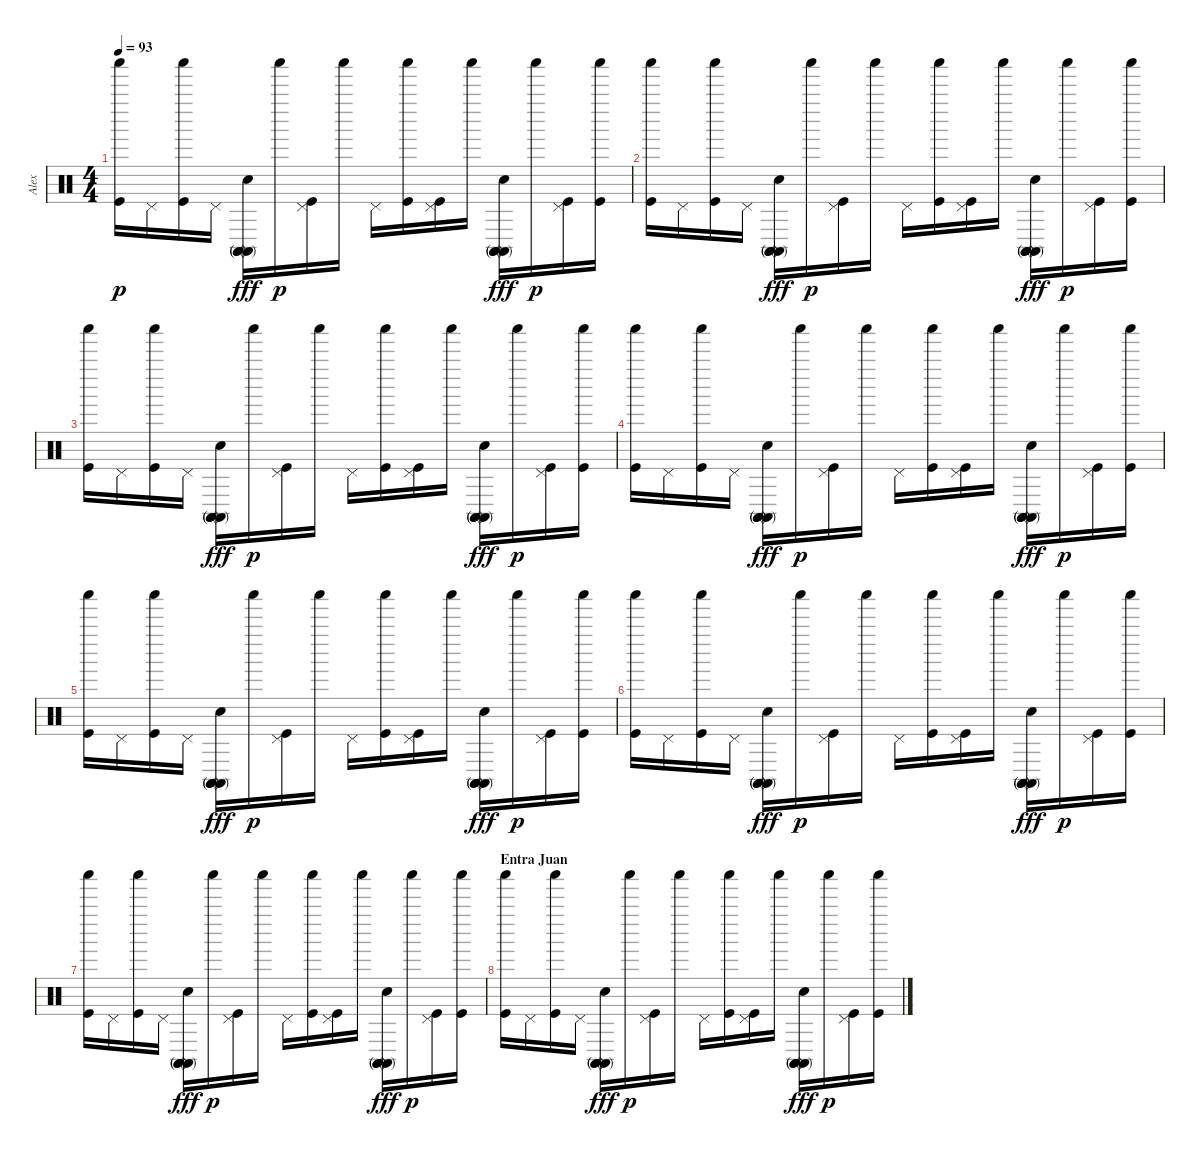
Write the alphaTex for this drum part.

\track ("Alex" "Alex") {instrument percussion}
\staff {score}
\articulation defaults
\ts (4 4)
\tempo 93
\clef neutral
\ks c
("Kick (hit)" "Shaker (hit)").16{dy p volume 13} "Pedal Hi-Hat (hit)".16 ("Kick (hit)" "Shaker (hit)").16 "Pedal Hi-Hat (hit)".16 ("Electric Snare (hit)" "Conga high (mute)" "Conga high (mute)" "Conga high (mute)").16{dy fff} "Shaker (hit)".16{dy p} ("Kick (hit)" "Pedal Hi-Hat (hit)").16 "Shaker (hit)".16 "Pedal Hi-Hat (hit)".16 ("Kick (hit)" "Shaker (hit)").16 ("Kick (hit)" "Pedal Hi-Hat (hit)").16 "Shaker (hit)".16 ("Electric Snare (hit)" "Conga high (mute)" "Conga high (mute)" "Conga high (mute)").16{dy fff} "Shaker (hit)".16{dy p} ("Kick (hit)" "Pedal Hi-Hat (hit)").16 ("Kick (hit)" "Shaker (hit)").16 |
("Kick (hit)" "Shaker (hit)").16{volume 13} "Pedal Hi-Hat (hit)".16 ("Kick (hit)" "Shaker (hit)").16 "Pedal Hi-Hat (hit)".16 ("Electric Snare (hit)" "Conga high (mute)" "Conga high (mute)" "Conga high (mute)").16{dy fff} "Shaker (hit)".16{dy p} ("Kick (hit)" "Pedal Hi-Hat (hit)").16 "Shaker (hit)".16 "Pedal Hi-Hat (hit)".16 ("Kick (hit)" "Shaker (hit)").16 ("Kick (hit)" "Pedal Hi-Hat (hit)").16 "Shaker (hit)".16 ("Electric Snare (hit)" "Conga high (mute)" "Conga high (mute)" "Conga high (mute)").16{dy fff} "Shaker (hit)".16{dy p} ("Kick (hit)" "Pedal Hi-Hat (hit)").16 ("Kick (hit)" "Shaker (hit)").16 |
("Kick (hit)" "Shaker (hit)").16{volume 13} "Pedal Hi-Hat (hit)".16 ("Kick (hit)" "Shaker (hit)").16 "Pedal Hi-Hat (hit)".16 ("Electric Snare (hit)" "Conga high (mute)" "Conga high (mute)" "Conga high (mute)").16{dy fff} "Shaker (hit)".16{dy p} ("Kick (hit)" "Pedal Hi-Hat (hit)").16 "Shaker (hit)".16 "Pedal Hi-Hat (hit)".16 ("Kick (hit)" "Shaker (hit)").16 ("Kick (hit)" "Pedal Hi-Hat (hit)").16 "Shaker (hit)".16 ("Electric Snare (hit)" "Conga high (mute)" "Conga high (mute)" "Conga high (mute)").16{dy fff} "Shaker (hit)".16{dy p} ("Kick (hit)" "Pedal Hi-Hat (hit)").16 ("Kick (hit)" "Shaker (hit)").16 |
("Kick (hit)" "Shaker (hit)").16{volume 13} "Pedal Hi-Hat (hit)".16 ("Kick (hit)" "Shaker (hit)").16 "Pedal Hi-Hat (hit)".16 ("Electric Snare (hit)" "Conga high (mute)" "Conga high (mute)" "Conga high (mute)").16{dy fff} "Shaker (hit)".16{dy p} ("Kick (hit)" "Pedal Hi-Hat (hit)").16 "Shaker (hit)".16 "Pedal Hi-Hat (hit)".16 ("Kick (hit)" "Shaker (hit)").16 ("Kick (hit)" "Pedal Hi-Hat (hit)").16 "Shaker (hit)".16 ("Electric Snare (hit)" "Conga high (mute)" "Conga high (mute)" "Conga high (mute)").16{dy fff} "Shaker (hit)".16{dy p} ("Kick (hit)" "Pedal Hi-Hat (hit)").16 ("Kick (hit)" "Shaker (hit)").16 |
("Kick (hit)" "Shaker (hit)").16{volume 13} "Pedal Hi-Hat (hit)".16 ("Kick (hit)" "Shaker (hit)").16 "Pedal Hi-Hat (hit)".16 ("Electric Snare (hit)" "Conga high (mute)" "Conga high (mute)" "Conga high (mute)").16{dy fff} "Shaker (hit)".16{dy p} ("Kick (hit)" "Pedal Hi-Hat (hit)").16 "Shaker (hit)".16 "Pedal Hi-Hat (hit)".16 ("Kick (hit)" "Shaker (hit)").16 ("Kick (hit)" "Pedal Hi-Hat (hit)").16 "Shaker (hit)".16 ("Electric Snare (hit)" "Conga high (mute)" "Conga high (mute)" "Conga high (mute)").16{dy fff} "Shaker (hit)".16{dy p} ("Kick (hit)" "Pedal Hi-Hat (hit)").16 ("Kick (hit)" "Shaker (hit)").16 |
("Kick (hit)" "Shaker (hit)").16{volume 13} "Pedal Hi-Hat (hit)".16 ("Kick (hit)" "Shaker (hit)").16 "Pedal Hi-Hat (hit)".16 ("Electric Snare (hit)" "Conga high (mute)" "Conga high (mute)" "Conga high (mute)").16{dy fff} "Shaker (hit)".16{dy p} ("Kick (hit)" "Pedal Hi-Hat (hit)").16 "Shaker (hit)".16 "Pedal Hi-Hat (hit)".16 ("Kick (hit)" "Shaker (hit)").16 ("Kick (hit)" "Pedal Hi-Hat (hit)").16 "Shaker (hit)".16 ("Electric Snare (hit)" "Conga high (mute)" "Conga high (mute)" "Conga high (mute)").16{dy fff} "Shaker (hit)".16{dy p} ("Kick (hit)" "Pedal Hi-Hat (hit)").16 ("Kick (hit)" "Shaker (hit)").16 |
("Kick (hit)" "Shaker (hit)").16{volume 13} "Pedal Hi-Hat (hit)".16 ("Kick (hit)" "Shaker (hit)").16 "Pedal Hi-Hat (hit)".16 ("Electric Snare (hit)" "Conga high (mute)" "Conga high (mute)" "Conga high (mute)").16{dy fff} "Shaker (hit)".16{dy p} ("Kick (hit)" "Pedal Hi-Hat (hit)").16 "Shaker (hit)".16 "Pedal Hi-Hat (hit)".16 ("Kick (hit)" "Shaker (hit)").16 ("Kick (hit)" "Pedal Hi-Hat (hit)").16 "Shaker (hit)".16 ("Electric Snare (hit)" "Conga high (mute)" "Conga high (mute)" "Conga high (mute)").16{dy fff} "Shaker (hit)".16{dy p} ("Kick (hit)" "Pedal Hi-Hat (hit)").16 ("Kick (hit)" "Shaker (hit)").16 |
\section ("" "Entra Juan")
("Kick (hit)" "Shaker (hit)").16{volume 13} "Pedal Hi-Hat (hit)".16 ("Kick (hit)" "Shaker (hit)").16 "Pedal Hi-Hat (hit)".16 ("Electric Snare (hit)" "Conga high (mute)" "Conga high (mute)" "Conga high (mute)").16{dy fff} "Shaker (hit)".16{dy p} ("Kick (hit)" "Pedal Hi-Hat (hit)").16 "Shaker (hit)".16 "Pedal Hi-Hat (hit)".16 ("Kick (hit)" "Shaker (hit)").16 ("Kick (hit)" "Pedal Hi-Hat (hit)").16 "Shaker (hit)".16 ("Electric Snare (hit)" "Conga high (mute)" "Conga high (mute)" "Conga high (mute)").16{dy fff} "Shaker (hit)".16{dy p} ("Kick (hit)" "Pedal Hi-Hat (hit)").16 ("Kick (hit)" "Shaker (hit)").16
